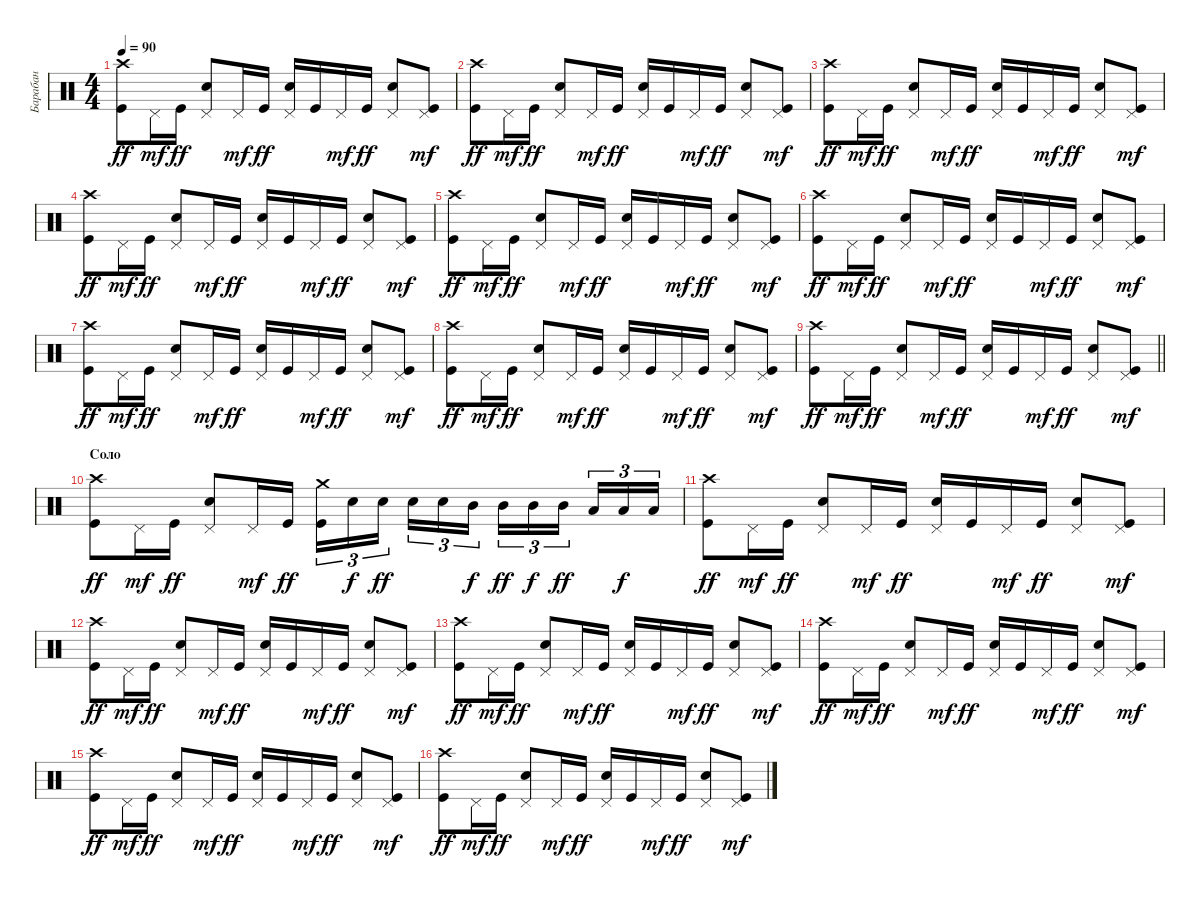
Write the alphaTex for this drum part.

\track ("Барабан" "Барабан") {instrument percussion}
\staff {score}
\articulation defaults
\ts (4 4)
\tempo 90
\clef neutral
\ks c
("Crash high (hit)" "Kick (hit)").8{dy ff} "Pedal Hi-Hat (hit)".16{dy mf} "Kick (hit)".16{dy ff} ("Pedal Hi-Hat (hit)" "Snare (hit) 2").8 "Pedal Hi-Hat (hit)".16{dy mf} "Kick (hit)".16{dy ff} ("Pedal Hi-Hat (hit)" "Snare (hit) 2").16 "Kick (hit)".16 "Pedal Hi-Hat (hit)".16{dy mf} "Kick (hit)".16{dy ff} ("Pedal Hi-Hat (hit)" "Snare (hit) 2").8 ("Pedal Hi-Hat (hit)" "Kick (hit)").8{dy mf} |
("Crash high (hit)" "Kick (hit)").8{dy ff} "Pedal Hi-Hat (hit)".16{dy mf} "Kick (hit)".16{dy ff} ("Pedal Hi-Hat (hit)" "Snare (hit) 2").8 "Pedal Hi-Hat (hit)".16{dy mf} "Kick (hit)".16{dy ff} ("Pedal Hi-Hat (hit)" "Snare (hit) 2").16 "Kick (hit)".16 "Pedal Hi-Hat (hit)".16{dy mf} "Kick (hit)".16{dy ff} ("Pedal Hi-Hat (hit)" "Snare (hit) 2").8 ("Pedal Hi-Hat (hit)" "Kick (hit)").8{dy mf} |
("Crash high (hit)" "Kick (hit)").8{dy ff} "Pedal Hi-Hat (hit)".16{dy mf} "Kick (hit)".16{dy ff} ("Pedal Hi-Hat (hit)" "Snare (hit) 2").8 "Pedal Hi-Hat (hit)".16{dy mf} "Kick (hit)".16{dy ff} ("Pedal Hi-Hat (hit)" "Snare (hit) 2").16 "Kick (hit)".16 "Pedal Hi-Hat (hit)".16{dy mf} "Kick (hit)".16{dy ff} ("Pedal Hi-Hat (hit)" "Snare (hit) 2").8 ("Pedal Hi-Hat (hit)" "Kick (hit)").8{dy mf} |
("Crash high (hit)" "Kick (hit)").8{dy ff} "Pedal Hi-Hat (hit)".16{dy mf} "Kick (hit)".16{dy ff} ("Pedal Hi-Hat (hit)" "Snare (hit) 2").8 "Pedal Hi-Hat (hit)".16{dy mf} "Kick (hit)".16{dy ff} ("Pedal Hi-Hat (hit)" "Snare (hit) 2").16 "Kick (hit)".16 "Pedal Hi-Hat (hit)".16{dy mf} "Kick (hit)".16{dy ff} ("Pedal Hi-Hat (hit)" "Snare (hit) 2").8 ("Pedal Hi-Hat (hit)" "Kick (hit)").8{dy mf} |
("Crash high (hit)" "Kick (hit)").8{dy ff} "Pedal Hi-Hat (hit)".16{dy mf} "Kick (hit)".16{dy ff} ("Pedal Hi-Hat (hit)" "Snare (hit) 2").8 "Pedal Hi-Hat (hit)".16{dy mf} "Kick (hit)".16{dy ff} ("Pedal Hi-Hat (hit)" "Snare (hit) 2").16 "Kick (hit)".16 "Pedal Hi-Hat (hit)".16{dy mf} "Kick (hit)".16{dy ff} ("Pedal Hi-Hat (hit)" "Snare (hit) 2").8 ("Pedal Hi-Hat (hit)" "Kick (hit)").8{dy mf} |
("Crash high (hit)" "Kick (hit)").8{dy ff} "Pedal Hi-Hat (hit)".16{dy mf} "Kick (hit)".16{dy ff} ("Pedal Hi-Hat (hit)" "Snare (hit) 2").8 "Pedal Hi-Hat (hit)".16{dy mf} "Kick (hit)".16{dy ff} ("Pedal Hi-Hat (hit)" "Snare (hit) 2").16 "Kick (hit)".16 "Pedal Hi-Hat (hit)".16{dy mf} "Kick (hit)".16{dy ff} ("Pedal Hi-Hat (hit)" "Snare (hit) 2").8 ("Pedal Hi-Hat (hit)" "Kick (hit)").8{dy mf} |
("Crash high (hit)" "Kick (hit)").8{dy ff} "Pedal Hi-Hat (hit)".16{dy mf} "Kick (hit)".16{dy ff} ("Pedal Hi-Hat (hit)" "Snare (hit) 2").8 "Pedal Hi-Hat (hit)".16{dy mf} "Kick (hit)".16{dy ff} ("Pedal Hi-Hat (hit)" "Snare (hit) 2").16 "Kick (hit)".16 "Pedal Hi-Hat (hit)".16{dy mf} "Kick (hit)".16{dy ff} ("Pedal Hi-Hat (hit)" "Snare (hit) 2").8 ("Pedal Hi-Hat (hit)" "Kick (hit)").8{dy mf} |
("Crash high (hit)" "Kick (hit)").8{dy ff} "Pedal Hi-Hat (hit)".16{dy mf} "Kick (hit)".16{dy ff} ("Pedal Hi-Hat (hit)" "Snare (hit) 2").8 "Pedal Hi-Hat (hit)".16{dy mf} "Kick (hit)".16{dy ff} ("Pedal Hi-Hat (hit)" "Snare (hit) 2").16 "Kick (hit)".16 "Pedal Hi-Hat (hit)".16{dy mf} "Kick (hit)".16{dy ff} ("Pedal Hi-Hat (hit)" "Snare (hit) 2").8 ("Pedal Hi-Hat (hit)" "Kick (hit)").8{dy mf} |
\barLineRight lightlight
("Crash high (hit)" "Kick (hit)").8{dy ff} "Pedal Hi-Hat (hit)".16{dy mf} "Kick (hit)".16{dy ff} ("Pedal Hi-Hat (hit)" "Snare (hit) 2").8 "Pedal Hi-Hat (hit)".16{dy mf} "Kick (hit)".16{dy ff} ("Pedal Hi-Hat (hit)" "Snare (hit) 2").16 "Kick (hit)".16 "Pedal Hi-Hat (hit)".16{dy mf} "Kick (hit)".16{dy ff} ("Pedal Hi-Hat (hit)" "Snare (hit) 2").8 ("Pedal Hi-Hat (hit)" "Kick (hit)").8{dy mf} |
\section ("" "Соло")
("Crash high (hit)" "Kick (hit)").8{dy ff} "Pedal Hi-Hat (hit)".16{dy mf} "Kick (hit)".16{dy ff} ("Pedal Hi-Hat (hit)" "Snare (hit) 2").8 "Pedal Hi-Hat (hit)".16{dy mf} "Kick (hit)".16{dy ff} ("Crash medium (hit)" "Kick (hit)").16{tu (3 2)} "Snare (hit) 2".16{tu (3 2) dy f} "Snare (hit) 2".16{tu (3 2) dy ff beam splitsecondary} "Snare (hit) 2".16{tu (3 2)} "Snare (hit) 2".16{tu (3 2)} "Mid Tom (hit)".16{tu (3 2) dy f} "Mid Tom (hit)".16{tu (3 2) dy ff} "Mid Tom (hit)".16{tu (3 2) dy f} "Mid Tom (hit)".16{tu (3 2) dy ff beam splitsecondary} "Low Tom (hit)".16{tu (3 2)} "Low Tom (hit)".16{tu (3 2) dy f} "Low Tom (hit)".16{tu (3 2)} |
("Crash high (hit)" "Kick (hit)").8{dy ff} "Pedal Hi-Hat (hit)".16{dy mf} "Kick (hit)".16{dy ff} ("Pedal Hi-Hat (hit)" "Snare (hit) 2").8 "Pedal Hi-Hat (hit)".16{dy mf} "Kick (hit)".16{dy ff} ("Pedal Hi-Hat (hit)" "Snare (hit) 2").16 "Kick (hit)".16 "Pedal Hi-Hat (hit)".16{dy mf} "Kick (hit)".16{dy ff} ("Pedal Hi-Hat (hit)" "Snare (hit) 2").8 ("Pedal Hi-Hat (hit)" "Kick (hit)").8{dy mf} |
("Crash high (hit)" "Kick (hit)").8{dy ff} "Pedal Hi-Hat (hit)".16{dy mf} "Kick (hit)".16{dy ff} ("Pedal Hi-Hat (hit)" "Snare (hit) 2").8 "Pedal Hi-Hat (hit)".16{dy mf} "Kick (hit)".16{dy ff} ("Pedal Hi-Hat (hit)" "Snare (hit) 2").16 "Kick (hit)".16 "Pedal Hi-Hat (hit)".16{dy mf} "Kick (hit)".16{dy ff} ("Pedal Hi-Hat (hit)" "Snare (hit) 2").8 ("Pedal Hi-Hat (hit)" "Kick (hit)").8{dy mf} |
("Crash high (hit)" "Kick (hit)").8{dy ff} "Pedal Hi-Hat (hit)".16{dy mf} "Kick (hit)".16{dy ff} ("Pedal Hi-Hat (hit)" "Snare (hit) 2").8 "Pedal Hi-Hat (hit)".16{dy mf} "Kick (hit)".16{dy ff} ("Pedal Hi-Hat (hit)" "Snare (hit) 2").16 "Kick (hit)".16 "Pedal Hi-Hat (hit)".16{dy mf} "Kick (hit)".16{dy ff} ("Pedal Hi-Hat (hit)" "Snare (hit) 2").8 ("Pedal Hi-Hat (hit)" "Kick (hit)").8{dy mf} |
("Crash high (hit)" "Kick (hit)").8{dy ff} "Pedal Hi-Hat (hit)".16{dy mf} "Kick (hit)".16{dy ff} ("Pedal Hi-Hat (hit)" "Snare (hit) 2").8 "Pedal Hi-Hat (hit)".16{dy mf} "Kick (hit)".16{dy ff} ("Pedal Hi-Hat (hit)" "Snare (hit) 2").16 "Kick (hit)".16 "Pedal Hi-Hat (hit)".16{dy mf} "Kick (hit)".16{dy ff} ("Pedal Hi-Hat (hit)" "Snare (hit) 2").8 ("Pedal Hi-Hat (hit)" "Kick (hit)").8{dy mf} |
("Crash high (hit)" "Kick (hit)").8{dy ff} "Pedal Hi-Hat (hit)".16{dy mf} "Kick (hit)".16{dy ff} ("Pedal Hi-Hat (hit)" "Snare (hit) 2").8 "Pedal Hi-Hat (hit)".16{dy mf} "Kick (hit)".16{dy ff} ("Pedal Hi-Hat (hit)" "Snare (hit) 2").16 "Kick (hit)".16 "Pedal Hi-Hat (hit)".16{dy mf} "Kick (hit)".16{dy ff} ("Pedal Hi-Hat (hit)" "Snare (hit) 2").8 ("Pedal Hi-Hat (hit)" "Kick (hit)").8{dy mf} |
("Crash high (hit)" "Kick (hit)").8{dy ff} "Pedal Hi-Hat (hit)".16{dy mf} "Kick (hit)".16{dy ff} ("Pedal Hi-Hat (hit)" "Snare (hit) 2").8 "Pedal Hi-Hat (hit)".16{dy mf} "Kick (hit)".16{dy ff} ("Pedal Hi-Hat (hit)" "Snare (hit) 2").16 "Kick (hit)".16 "Pedal Hi-Hat (hit)".16{dy mf} "Kick (hit)".16{dy ff} ("Pedal Hi-Hat (hit)" "Snare (hit) 2").8 ("Pedal Hi-Hat (hit)" "Kick (hit)").8{dy mf}
